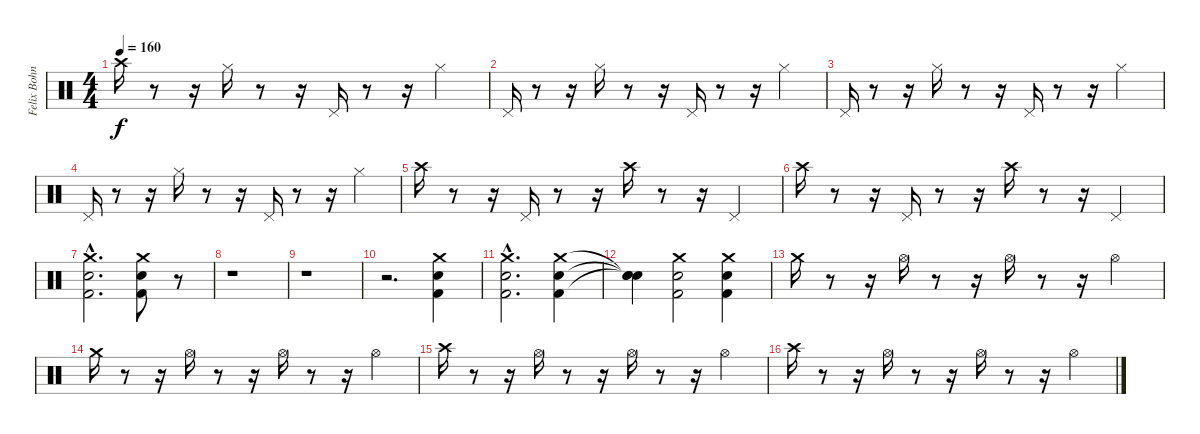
\track ("Felix Bohnke" "Felix Bohn") {instrument percussion}
\staff {score}
\articulation defaults
\ts (4 4)
\tempo 160
\clef neutral
\ks c "Crash high (hit)".16{dy f}
r.8 r.16 "Hi-Hat (closed)".16 r.8 r.16 "Pedal Hi-Hat (hit)".16 r.8 r.16 "Hi-Hat (closed)".4 |
"Pedal Hi-Hat (hit)".16 r.8 r.16 "Hi-Hat (closed)".16 r.8 r.16 "Pedal Hi-Hat (hit)".16 r.8 r.16 "Hi-Hat (closed)".4 |
"Pedal Hi-Hat (hit)".16 r.8 r.16 "Hi-Hat (closed)".16 r.8 r.16 "Pedal Hi-Hat (hit)".16 r.8 r.16 "Hi-Hat (closed)".4 |
"Pedal Hi-Hat (hit)".16 r.8 r.16 "Hi-Hat (closed)".16 r.8 r.16 "Pedal Hi-Hat (hit)".16 r.8 r.16 "Hi-Hat (closed)".4 |
"Crash high (hit)".16 r.8 r.16 "Pedal Hi-Hat (hit)".16 r.8 r.16 "Crash high (hit)".16 r.8 r.16 "Pedal Hi-Hat (hit)".4 |
"Crash high (hit)".16 r.8 r.16 "Pedal Hi-Hat (hit)".16 r.8 r.16 "Crash high (hit)".16 r.8 r.16 "Pedal Hi-Hat (hit)".4 |
("Crash medium (hit)"{hac} "Electric Snare (hit)"{hac} "Kick (hit) 2"{hac}).2{d} ("Crash medium (hit)" "Electric Snare (hit)" "Kick (hit) 2").8 r.8 |
r.1 |
r.1 |
r.2{d} ("Crash medium (hit)" "Electric Snare (hit)" "Kick (hit) 2").4 |
("Crash medium (hit)"{hac} "Electric Snare (hit)"{hac} "Kick (hit) 2"{hac}).2{d} ("Crash medium (hit)" "Electric Snare (hit)" "Kick (hit) 2").4 |
("Snare (hit)"{t} "Snare (hit)"{t} "Snare (hit)"{t}).4 ("Crash medium (hit)" "Electric Snare (hit)" "Kick (hit) 2").2 ("Crash medium (hit)" "Electric Snare (hit)" "Kick (hit) 2").4 |
"Crash medium (hit)".16 r.8 r.16 "Hi-Hat (open)".16 r.8 r.16 "Hi-Hat (open)".16 r.8 r.16 "Hi-Hat (open)".4 |
"Crash medium (hit)".16 r.8 r.16 "Hi-Hat (open)".16 r.8 r.16 "Hi-Hat (open)".16 r.8 r.16 "Hi-Hat (open)".4 |
"Crash high (hit)".16 r.8 r.16 "Hi-Hat (open)".16 r.8 r.16 "Hi-Hat (open)".16 r.8 r.16 "Hi-Hat (open)".4 |
"Crash high (hit)".16 r.8 r.16 "Hi-Hat (open)".16 r.8 r.16 "Hi-Hat (open)".16 r.8 r.16 "Hi-Hat (open)".4
